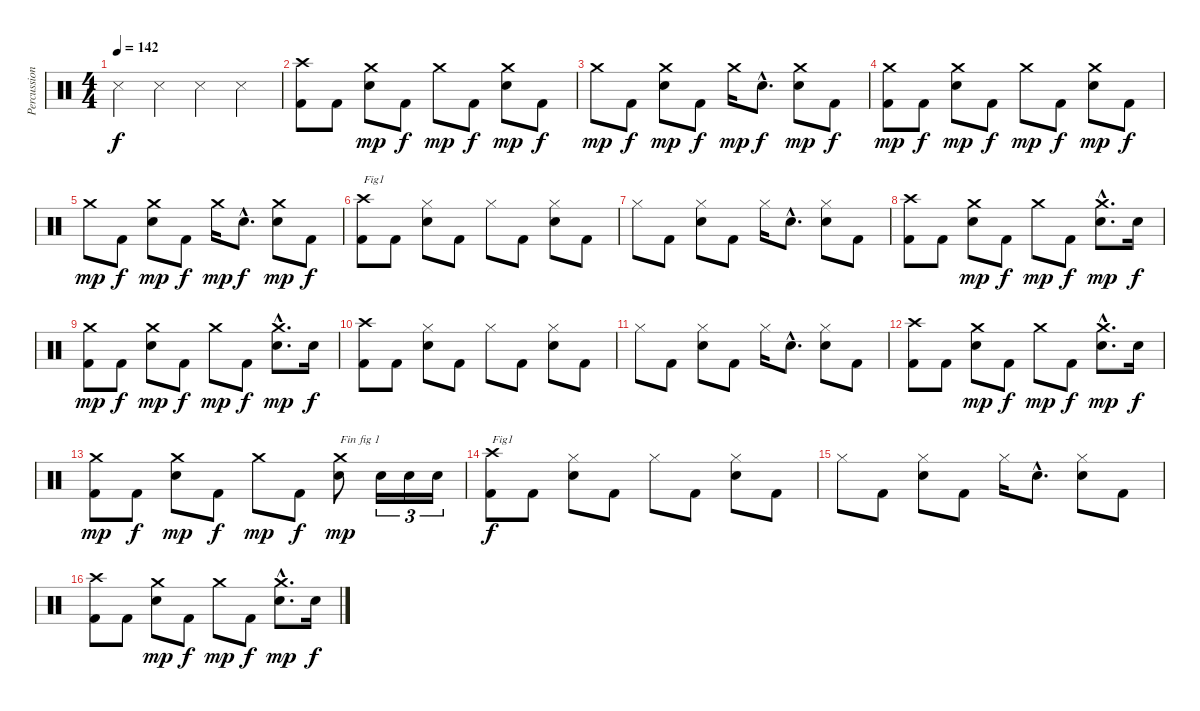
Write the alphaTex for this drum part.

\track ("Percussions" "Percussion") {instrument percussion}
\staff {score}
\articulation defaults
\ts (4 4)
\tempo 142
\clef neutral
\ks c "Metronome (hit)".4{dy f} "Metronome (hit)".4 "Metronome (hit)".4 "Metronome (hit)".4
|
("Kick (hit) 2" "Crash high (hit)").8 "Kick (hit) 2".8 ("Electric Snare (hit)" "Crash medium (hit)").8{dy mp} "Kick (hit) 2".8{dy f} "Crash medium (hit)".8{dy mp} "Kick (hit) 2".8{dy f} ("Electric Snare (hit)" "Crash medium (hit)").8{dy mp} "Kick (hit) 2".8{dy f} |
"Crash medium (hit)".8{dy mp} "Kick (hit) 2".8{dy f} ("Electric Snare (hit)" "Crash medium (hit)").8{dy mp} "Kick (hit) 2".8{dy f} "Crash medium (hit)".16{dy mp} "Electric Snare (hit)"{hac}.8{d dy f} ("Electric Snare (hit)" "Crash medium (hit)").8{dy mp} "Kick (hit) 2".8{dy f} |
("Kick (hit) 2" "Crash medium (hit)").8{dy mp} "Kick (hit) 2".8{dy f} ("Electric Snare (hit)" "Crash medium (hit)").8{dy mp} "Kick (hit) 2".8{dy f} "Crash medium (hit)".8{dy mp} "Kick (hit) 2".8{dy f} ("Electric Snare (hit)" "Crash medium (hit)").8{dy mp} "Kick (hit) 2".8{dy f} |
"Crash medium (hit)".8{dy mp} "Kick (hit) 2".8{dy f} ("Electric Snare (hit)" "Crash medium (hit)").8{dy mp} "Kick (hit) 2".8{dy f} "Crash medium (hit)".16{dy mp} "Electric Snare (hit)"{hac}.8{d dy f} ("Electric Snare (hit)" "Crash medium (hit)").8{dy mp} "Kick (hit) 2".8{dy f} |
("Kick (hit) 2" "Crash high (hit)").8{txt "Fig1"} "Kick (hit) 2".8 ("Electric Snare (hit)" "Hi-Hat (closed)").8 "Kick (hit) 2".8 "Hi-Hat (closed)".8 "Kick (hit) 2".8 ("Electric Snare (hit)" "Hi-Hat (closed)").8 "Kick (hit) 2".8 |
"Hi-Hat (closed)".8 "Kick (hit) 2".8 ("Electric Snare (hit)" "Hi-Hat (closed)").8 "Kick (hit) 2".8 "Hi-Hat (closed)".16 "Electric Snare (hit)"{hac}.8{d} ("Electric Snare (hit)" "Hi-Hat (closed)").8 "Kick (hit) 2".8 |
("Kick (hit) 2" "Crash high (hit)").8 "Kick (hit) 2".8 ("Electric Snare (hit)" "Crash medium (hit)").8{dy mp} "Kick (hit) 2".8{dy f} "Crash medium (hit)".8{dy mp} "Kick (hit) 2".8{dy f} ("Electric Snare (hit)"{hac} "Crash medium (hit)"{hac}).8{d dy mp} "Electric Snare (hit)".16{dy f} |
("Kick (hit) 2" "Crash medium (hit)").8{dy mp} "Kick (hit) 2".8{dy f} ("Electric Snare (hit)" "Crash medium (hit)").8{dy mp} "Kick (hit) 2".8{dy f} "Crash medium (hit)".8{dy mp} "Kick (hit) 2".8{dy f} ("Electric Snare (hit)"{hac} "Crash medium (hit)"{hac}).8{d dy mp} "Electric Snare (hit)".16{dy f} |
("Kick (hit) 2" "Crash high (hit)").8 "Kick (hit) 2".8 ("Electric Snare (hit)" "Hi-Hat (closed)").8 "Kick (hit) 2".8 "Hi-Hat (closed)".8 "Kick (hit) 2".8 ("Electric Snare (hit)" "Hi-Hat (closed)").8 "Kick (hit) 2".8 |
"Hi-Hat (closed)".8 "Kick (hit) 2".8 ("Electric Snare (hit)" "Hi-Hat (closed)").8 "Kick (hit) 2".8 "Hi-Hat (closed)".16 "Electric Snare (hit)"{hac}.8{d} ("Electric Snare (hit)" "Hi-Hat (closed)").8 "Kick (hit) 2".8 |
("Kick (hit) 2" "Crash high (hit)").8 "Kick (hit) 2".8 ("Electric Snare (hit)" "Crash medium (hit)").8{dy mp} "Kick (hit) 2".8{dy f} "Crash medium (hit)".8{dy mp} "Kick (hit) 2".8{dy f} ("Electric Snare (hit)"{hac} "Crash medium (hit)"{hac}).8{d dy mp} "Electric Snare (hit)".16{dy f} |
("Kick (hit) 2" "Crash medium (hit)").8{dy mp} "Kick (hit) 2".8{dy f} ("Electric Snare (hit)" "Crash medium (hit)").8{dy mp} "Kick (hit) 2".8{dy f} "Crash medium (hit)".8{dy mp} "Kick (hit) 2".8{dy f} ("Electric Snare (hit)" "Crash medium (hit)").8{txt "Fin fig 1" dy mp} "Electric Snare (hit)".16{tu (3 2)} "Electric Snare (hit)".16{tu (3 2)} "Electric Snare (hit)".16{tu (3 2)} |
("Kick (hit) 2" "Crash high (hit)").8{txt "Fig1" dy f} "Kick (hit) 2".8 ("Electric Snare (hit)" "Hi-Hat (closed)").8 "Kick (hit) 2".8 "Hi-Hat (closed)".8 "Kick (hit) 2".8 ("Electric Snare (hit)" "Hi-Hat (closed)").8 "Kick (hit) 2".8 |
"Hi-Hat (closed)".8 "Kick (hit) 2".8 ("Electric Snare (hit)" "Hi-Hat (closed)").8 "Kick (hit) 2".8 "Hi-Hat (closed)".16 "Electric Snare (hit)"{hac}.8{d} ("Electric Snare (hit)" "Hi-Hat (closed)").8 "Kick (hit) 2".8 |
("Kick (hit) 2" "Crash high (hit)").8 "Kick (hit) 2".8 ("Electric Snare (hit)" "Crash medium (hit)").8{dy mp} "Kick (hit) 2".8{dy f} "Crash medium (hit)".8{dy mp} "Kick (hit) 2".8{dy f} ("Electric Snare (hit)"{hac} "Crash medium (hit)"{hac}).8{d dy mp} "Electric Snare (hit)".16{dy f}
